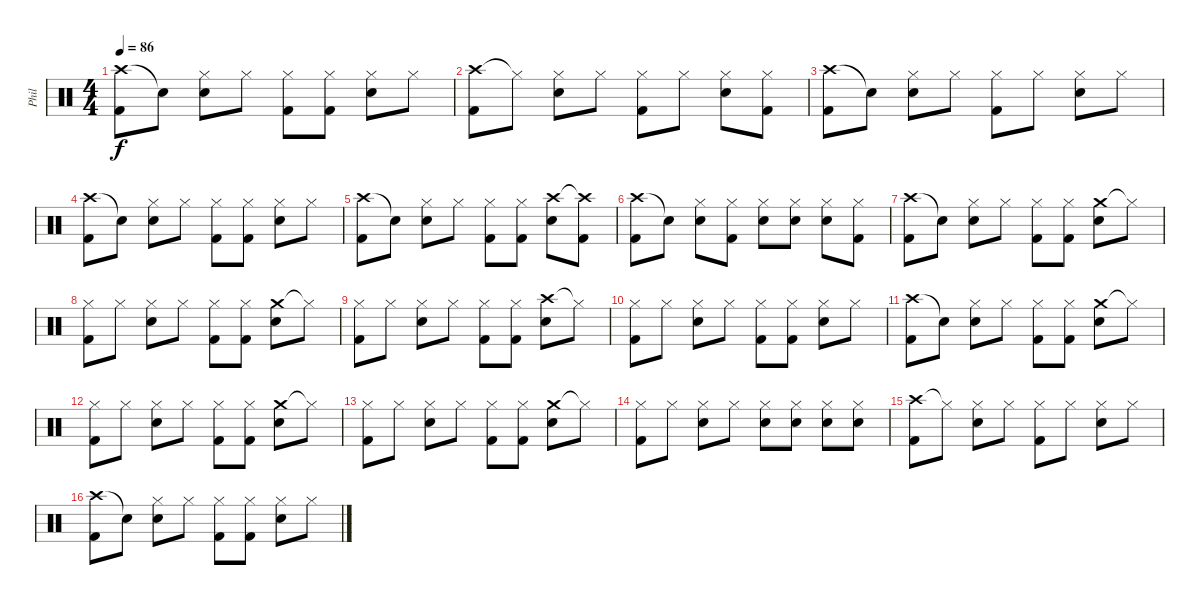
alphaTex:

\track ("Phil" "Phil") {instrument percussion}
\staff {score}
\articulation defaults
\ts (4 4)
\tempo 86
\clef neutral
\ks c
("Crash high (hit)" "Kick (hit) 2").8{dy f} "Snare (hit)"{t}.8 ("Hi-Hat (closed)" "Snare (hit) 2").8 "Hi-Hat (closed)".8 ("Hi-Hat (closed)" "Kick (hit) 2").8 ("Hi-Hat (closed)" "Kick (hit) 2").8 ("Hi-Hat (closed)" "Snare (hit) 2").8 "Hi-Hat (closed)".8 |
("Crash high (hit)" "Kick (hit) 2").8 "Hi-Hat (closed)"{t}.8 ("Hi-Hat (closed)" "Snare (hit) 2").8 "Hi-Hat (closed)".8 ("Hi-Hat (closed)" "Kick (hit) 2").8 "Hi-Hat (closed)".8 ("Hi-Hat (closed)" "Snare (hit) 2").8 ("Hi-Hat (closed)" "Kick (hit) 2").8 |
("Crash high (hit)" "Kick (hit) 2").8 "Snare (hit)"{t}.8 ("Hi-Hat (closed)" "Snare (hit) 2").8 "Hi-Hat (closed)".8 ("Hi-Hat (closed)" "Kick (hit) 2").8 "Hi-Hat (closed)".8 ("Hi-Hat (closed)" "Snare (hit) 2").8 "Hi-Hat (closed)".8 |
("Crash high (hit)" "Kick (hit) 2").8 "Snare (hit)"{t}.8 ("Hi-Hat (closed)" "Snare (hit) 2").8 "Hi-Hat (closed)".8 ("Hi-Hat (closed)" "Kick (hit) 2").8 ("Hi-Hat (closed)" "Kick (hit) 2").8 ("Hi-Hat (closed)" "Snare (hit) 2").8 "Hi-Hat (closed)".8 |
("Crash high (hit)" "Kick (hit) 2").8 "Snare (hit)"{t}.8 ("Hi-Hat (closed)" "Snare (hit) 2").8 "Hi-Hat (closed)".8 ("Hi-Hat (closed)" "Kick (hit) 2").8 ("Hi-Hat (closed)" "Kick (hit) 2").8 ("Crash high (hit)" "Snare (hit) 2").8 ("Crash high (hit)"{t} "Kick (hit) 2").8 |
("Crash high (hit)" "Kick (hit) 2").8 "Snare (hit)"{t}.8 ("Hi-Hat (closed)" "Snare (hit) 2").8 ("Hi-Hat (closed)" "Kick (hit) 2").8 ("Hi-Hat (closed)" "Snare (hit) 2").8 ("Hi-Hat (closed)" "Snare (hit) 2").8 ("Hi-Hat (closed)" "Snare (hit) 2").8 ("Hi-Hat (closed)" "Kick (hit) 2").8 |
("Crash high (hit)" "Kick (hit) 2").8 "Snare (hit)"{t}.8 ("Hi-Hat (closed)" "Snare (hit) 2").8 "Hi-Hat (closed)".8 ("Hi-Hat (closed)" "Kick (hit) 2").8 ("Hi-Hat (closed)" "Kick (hit) 2").8 ("Crash medium (hit)" "Snare (hit) 2").8 "Hi-Hat (closed)"{t}.8 |
("Hi-Hat (closed)" "Kick (hit) 2").8 "Hi-Hat (closed)".8 ("Hi-Hat (closed)" "Snare (hit) 2").8 "Hi-Hat (closed)".8 ("Hi-Hat (closed)" "Kick (hit) 2").8 ("Hi-Hat (closed)" "Kick (hit) 2").8 ("Crash medium (hit)" "Snare (hit) 2").8 "Hi-Hat (closed)"{t}.8 |
("Hi-Hat (closed)" "Kick (hit) 2").8 "Hi-Hat (closed)".8 ("Hi-Hat (closed)" "Snare (hit) 2").8 "Hi-Hat (closed)".8 ("Hi-Hat (closed)" "Kick (hit) 2").8 ("Hi-Hat (closed)" "Kick (hit) 2").8 ("Crash high (hit)" "Snare (hit) 2").8 "Hi-Hat (closed)"{t}.8 |
("Hi-Hat (closed)" "Kick (hit) 2").8 "Hi-Hat (closed)".8 ("Hi-Hat (closed)" "Snare (hit) 2").8 "Hi-Hat (closed)".8 ("Hi-Hat (closed)" "Kick (hit) 2").8 ("Hi-Hat (closed)" "Kick (hit) 2").8 ("Hi-Hat (closed)" "Snare (hit) 2").8 "Hi-Hat (closed)".8 |
("Crash high (hit)" "Kick (hit) 2").8 "Snare (hit)"{t}.8 ("Hi-Hat (closed)" "Snare (hit) 2").8 "Hi-Hat (closed)".8 ("Hi-Hat (closed)" "Kick (hit) 2").8 ("Hi-Hat (closed)" "Kick (hit) 2").8 ("Crash medium (hit)" "Snare (hit) 2").8 "Hi-Hat (closed)"{t}.8 |
("Hi-Hat (closed)" "Kick (hit) 2").8 "Hi-Hat (closed)".8 ("Hi-Hat (closed)" "Snare (hit) 2").8 "Hi-Hat (closed)".8 ("Hi-Hat (closed)" "Kick (hit) 2").8 ("Hi-Hat (closed)" "Kick (hit) 2").8 ("Crash medium (hit)" "Snare (hit) 2").8 "Hi-Hat (closed)"{t}.8 |
("Hi-Hat (closed)" "Kick (hit) 2").8 "Hi-Hat (closed)".8 ("Hi-Hat (closed)" "Snare (hit) 2").8 "Hi-Hat (closed)".8 ("Hi-Hat (closed)" "Kick (hit) 2").8 ("Hi-Hat (closed)" "Kick (hit) 2").8 ("Crash medium (hit)" "Snare (hit) 2").8 "Hi-Hat (closed)"{t}.8 |
("Hi-Hat (closed)" "Kick (hit) 2").8 "Hi-Hat (closed)".8 ("Hi-Hat (closed)" "Snare (hit) 2").8 "Hi-Hat (closed)".8 ("Hi-Hat (closed)" "Snare (hit) 2").8 ("Hi-Hat (closed)" "Snare (hit) 2").8 ("Hi-Hat (closed)" "Snare (hit) 2").8 ("Hi-Hat (closed)" "Snare (hit) 2").8 |
("Crash high (hit)" "Kick (hit) 2").8 "Hi-Hat (closed)"{t}.8 ("Hi-Hat (closed)" "Snare (hit) 2").8 "Hi-Hat (closed)".8 ("Hi-Hat (closed)" "Kick (hit) 2").8 "Hi-Hat (closed)".8 ("Hi-Hat (closed)" "Snare (hit) 2").8 "Hi-Hat (closed)".8 |
("Crash high (hit)" "Kick (hit) 2").8 "Snare (hit)"{t}.8 ("Hi-Hat (closed)" "Snare (hit) 2").8 "Hi-Hat (closed)".8 ("Hi-Hat (closed)" "Kick (hit) 2").8 ("Hi-Hat (closed)" "Kick (hit) 2").8 ("Hi-Hat (closed)" "Snare (hit) 2").8 "Hi-Hat (closed)".8
